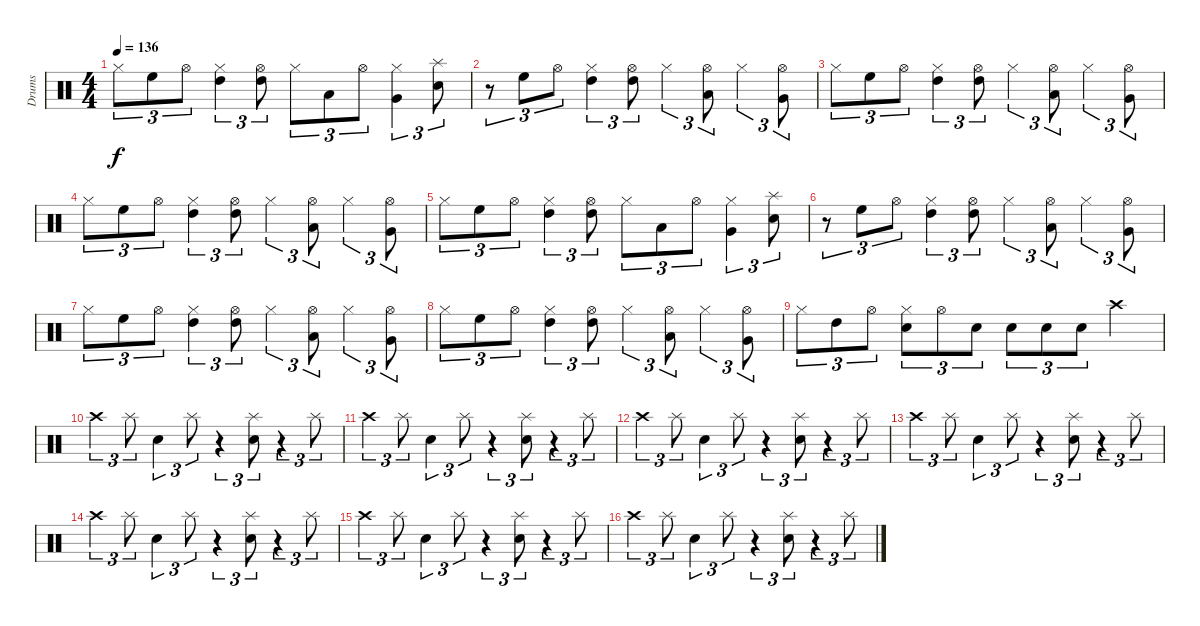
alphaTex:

\track ("Drums" "Drums") {instrument percussion}
\staff {score}
\articulation defaults
\ts (4 4)
\tempo 136
\clef neutral
\ks c "Hi-Hat (closed)".8{tu (3 2) dy f} "High Floor Tom (hit)".8{tu (3 2)} "Hi-Hat (open)".8{tu (3 2)}
("Hi-Hat (closed)" "High Tom (hit)").4{tu (3 2)} ("Hi-Hat (open)" "High Tom (hit)").8{tu (3 2)} "Hi-Hat (closed)".8{tu (3 2)} "Low Tom (hit)".8{tu (3 2)} "Hi-Hat (open)".8{tu (3 2)} ("Hi-Hat (closed)" "Very Low Tom (hit)").4{tu (3 2)} ("Splash (hit)" "Snare (hit) 2").8{tu (3 2)} |
r.8{tu (3 2)} "High Floor Tom (hit)".8{tu (3 2)} "Hi-Hat (open)".8{tu (3 2)} ("Hi-Hat (closed)" "High Tom (hit)").4{tu (3 2)} ("Hi-Hat (open)" "High Tom (hit)").8{tu (3 2)} "Hi-Hat (closed)".4{tu (3 2)} ("Hi-Hat (open)" "Low Tom (hit)").8{tu (3 2)} "Hi-Hat (closed)".4{tu (3 2)} ("Hi-Hat (open)" "Very Low Tom (hit)").8{tu (3 2)} |
"Hi-Hat (closed)".8{tu (3 2)} "High Floor Tom (hit)".8{tu (3 2)} "Hi-Hat (open)".8{tu (3 2)} ("Hi-Hat (closed)" "High Tom (hit)").4{tu (3 2)} ("Hi-Hat (open)" "High Tom (hit)").8{tu (3 2)} "Hi-Hat (closed)".4{tu (3 2)} ("Hi-Hat (open)" "Low Tom (hit)").8{tu (3 2)} "Hi-Hat (closed)".4{tu (3 2)} ("Hi-Hat (open)" "Very Low Tom (hit)").8{tu (3 2)} |
"Hi-Hat (closed)".8{tu (3 2)} "High Floor Tom (hit)".8{tu (3 2)} "Hi-Hat (open)".8{tu (3 2)} ("Hi-Hat (closed)" "High Tom (hit)").4{tu (3 2)} ("Hi-Hat (open)" "High Tom (hit)").8{tu (3 2)} "Hi-Hat (closed)".4{tu (3 2)} ("Hi-Hat (open)" "Low Tom (hit)").8{tu (3 2)} "Hi-Hat (closed)".4{tu (3 2)} ("Hi-Hat (open)" "Very Low Tom (hit)").8{tu (3 2)} |
"Hi-Hat (closed)".8{tu (3 2)} "High Floor Tom (hit)".8{tu (3 2)} "Hi-Hat (open)".8{tu (3 2)} ("Hi-Hat (closed)" "High Tom (hit)").4{tu (3 2)} ("Hi-Hat (open)" "High Tom (hit)").8{tu (3 2)} "Hi-Hat (closed)".8{tu (3 2)} "Low Tom (hit)".8{tu (3 2)} "Hi-Hat (open)".8{tu (3 2)} ("Hi-Hat (closed)" "Very Low Tom (hit)").4{tu (3 2)} ("Splash (hit)" "Snare (hit) 2").8{tu (3 2)} |
r.8{tu (3 2)} "High Floor Tom (hit)".8{tu (3 2)} "Hi-Hat (open)".8{tu (3 2)} ("Hi-Hat (closed)" "High Tom (hit)").4{tu (3 2)} ("Hi-Hat (open)" "High Tom (hit)").8{tu (3 2)} "Hi-Hat (closed)".4{tu (3 2)} ("Hi-Hat (open)" "Low Tom (hit)").8{tu (3 2)} "Hi-Hat (closed)".4{tu (3 2)} ("Hi-Hat (open)" "Very Low Tom (hit)").8{tu (3 2)} |
"Hi-Hat (closed)".8{tu (3 2)} "High Floor Tom (hit)".8{tu (3 2)} "Hi-Hat (open)".8{tu (3 2)} ("Hi-Hat (closed)" "High Tom (hit)").4{tu (3 2)} ("Hi-Hat (open)" "High Tom (hit)").8{tu (3 2)} "Hi-Hat (closed)".4{tu (3 2)} ("Hi-Hat (open)" "Low Tom (hit)").8{tu (3 2)} "Hi-Hat (closed)".4{tu (3 2)} ("Hi-Hat (open)" "Very Low Tom (hit)").8{tu (3 2)} |
"Hi-Hat (closed)".8{tu (3 2)} "High Floor Tom (hit)".8{tu (3 2)} "Hi-Hat (open)".8{tu (3 2)} ("Hi-Hat (closed)" "High Tom (hit)").4{tu (3 2)} ("Hi-Hat (open)" "High Tom (hit)").8{tu (3 2)} "Hi-Hat (closed)".4{tu (3 2)} ("Hi-Hat (open)" "Low Tom (hit)").8{tu (3 2)} "Hi-Hat (closed)".4{tu (3 2)} ("Hi-Hat (open)" "Very Low Tom (hit)").8{tu (3 2)} |
"Hi-Hat (closed)".8{tu (3 2)} "High Tom (hit)".8{tu (3 2)} "Hi-Hat (open)".8{tu (3 2)} ("Hi-Hat (closed)" "Snare (hit) 2").8{tu (3 2)} "Hi-Hat (open)".8{tu (3 2)} "Snare (hit) 2".8{tu (3 2)} "Snare (hit) 2".8{tu (3 2)} "Snare (hit) 2".8{tu (3 2)} "Snare (hit) 2".8{tu (3 2)} "Crash high (hit)".4 |
"Crash high (hit)".4{tu (3 2)} "Splash (hit)".8{tu (3 2)} "Snare (hit) 2".4{tu (3 2)} "Splash (hit)".8{tu (3 2)} r.4{tu (3 2)} ("Splash (hit)" "Snare (hit) 2").8{tu (3 2)} r.4{tu (3 2)} "Splash (hit)".8{tu (3 2)} |
"Crash high (hit)".4{tu (3 2)} "Splash (hit)".8{tu (3 2)} "Snare (hit) 2".4{tu (3 2)} "Splash (hit)".8{tu (3 2)} r.4{tu (3 2)} ("Splash (hit)" "Snare (hit) 2").8{tu (3 2)} r.4{tu (3 2)} "Splash (hit)".8{tu (3 2)} |
"Crash high (hit)".4{tu (3 2)} "Splash (hit)".8{tu (3 2)} "Snare (hit) 2".4{tu (3 2)} "Splash (hit)".8{tu (3 2)} r.4{tu (3 2)} ("Splash (hit)" "Snare (hit) 2").8{tu (3 2)} r.4{tu (3 2)} "Splash (hit)".8{tu (3 2)} |
"Crash high (hit)".4{tu (3 2)} "Splash (hit)".8{tu (3 2)} "Snare (hit) 2".4{tu (3 2)} "Splash (hit)".8{tu (3 2)} r.4{tu (3 2)} ("Splash (hit)" "Snare (hit) 2").8{tu (3 2)} r.4{tu (3 2)} "Splash (hit)".8{tu (3 2)} |
"Crash high (hit)".4{tu (3 2)} "Splash (hit)".8{tu (3 2)} "Snare (hit) 2".4{tu (3 2)} "Splash (hit)".8{tu (3 2)} r.4{tu (3 2)} ("Splash (hit)" "Snare (hit) 2").8{tu (3 2)} r.4{tu (3 2)} "Splash (hit)".8{tu (3 2)} |
"Crash high (hit)".4{tu (3 2)} "Splash (hit)".8{tu (3 2)} "Snare (hit) 2".4{tu (3 2)} "Splash (hit)".8{tu (3 2)} r.4{tu (3 2)} ("Splash (hit)" "Snare (hit) 2").8{tu (3 2)} r.4{tu (3 2)} "Splash (hit)".8{tu (3 2)} |
"Crash high (hit)".4{tu (3 2)} "Splash (hit)".8{tu (3 2)} "Snare (hit) 2".4{tu (3 2)} "Splash (hit)".8{tu (3 2)} r.4{tu (3 2)} ("Splash (hit)" "Snare (hit) 2").8{tu (3 2)} r.4{tu (3 2)} "Splash (hit)".8{tu (3 2)}
